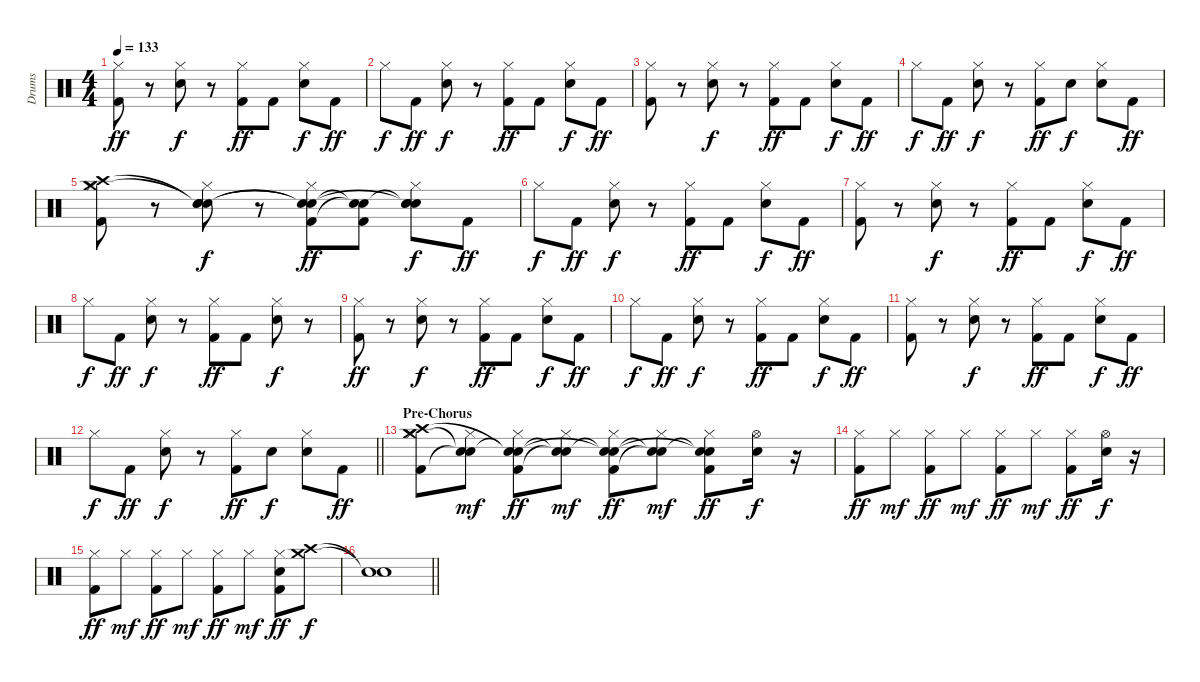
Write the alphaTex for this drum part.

\track ("Drums" "Drums") {instrument percussion}
\staff {score}
\articulation defaults
\ts (4 4)
\tempo 133
\clef neutral
\ks c
("Hi-Hat (closed)" "Kick (hit) 2").8{dy ff} r.8 ("Hi-Hat (closed)" "Snare (hit) 2").8{dy f} r.8 ("Hi-Hat (closed)" "Kick (hit) 2").8{dy ff} "Kick (hit) 2".8 ("Hi-Hat (closed)" "Snare (hit) 2").8{dy f} "Kick (hit) 2".8{dy ff} |
"Hi-Hat (closed)".8{dy f} "Kick (hit) 2".8{dy ff} ("Hi-Hat (closed)" "Snare (hit) 2").8{dy f} r.8 ("Hi-Hat (closed)" "Kick (hit) 2").8{dy ff} "Kick (hit) 2".8 ("Hi-Hat (closed)" "Snare (hit) 2").8{dy f} "Kick (hit) 2".8{dy ff} |
("Hi-Hat (closed)" "Kick (hit) 2").8 r.8 ("Hi-Hat (closed)" "Snare (hit) 2").8{dy f} r.8 ("Hi-Hat (closed)" "Kick (hit) 2").8{dy ff} "Kick (hit) 2".8 ("Hi-Hat (closed)" "Snare (hit) 2").8{dy f} "Kick (hit) 2".8{dy ff} |
"Hi-Hat (closed)".8{dy f} "Kick (hit) 2".8{dy ff} ("Hi-Hat (closed)" "Snare (hit) 2").8{dy f} r.8 ("Hi-Hat (closed)" "Kick (hit) 2").8{dy ff} "Snare (hit) 2".8{dy f} ("Hi-Hat (closed)" "Snare (hit) 2").8 "Kick (hit) 2".8{dy ff} |
("Hi-Hat (closed)" "Kick (hit) 2" "Crash medium (hit)" "Crash high (hit)").8 r.8 ("Hi-Hat (closed)" "Snare (hit) 2" "Snare (hit)"{t} "Snare (hit)"{t}).8{dy f} r.8 ("Hi-Hat (closed)" "Kick (hit) 2" "Snare (hit)"{t} "Snare (hit)"{t}).8{dy ff} ("Kick (hit) 2" "Snare (hit)"{t} "Snare (hit)"{t}).8 ("Hi-Hat (closed)" "Snare (hit) 2" "Snare (hit)"{t} "Snare (hit)"{t}).8{dy f} "Kick (hit) 2".8{dy ff} |
"Hi-Hat (closed)".8{dy f} "Kick (hit) 2".8{dy ff} ("Hi-Hat (closed)" "Snare (hit) 2").8{dy f} r.8 ("Hi-Hat (closed)" "Kick (hit) 2").8{dy ff} "Kick (hit) 2".8 ("Hi-Hat (closed)" "Snare (hit) 2").8{dy f} "Kick (hit) 2".8{dy ff} |
("Hi-Hat (closed)" "Kick (hit) 2").8 r.8 ("Hi-Hat (closed)" "Snare (hit) 2").8{dy f} r.8 ("Hi-Hat (closed)" "Kick (hit) 2").8{dy ff} "Kick (hit) 2".8 ("Hi-Hat (closed)" "Snare (hit) 2").8{dy f} "Kick (hit) 2".8{dy ff} |
"Hi-Hat (closed)".8{dy f} "Kick (hit) 2".8{dy ff} ("Hi-Hat (closed)" "Snare (hit) 2").8{dy f} r.8 ("Hi-Hat (closed)" "Kick (hit) 2").8{dy ff} "Kick (hit) 2".8 ("Hi-Hat (closed)" "Snare (hit) 2").8{dy f} r.8 |
("Hi-Hat (closed)" "Kick (hit) 2").8{dy ff} r.8 ("Hi-Hat (closed)" "Snare (hit) 2").8{dy f} r.8 ("Hi-Hat (closed)" "Kick (hit) 2").8{dy ff} "Kick (hit) 2".8 ("Hi-Hat (closed)" "Snare (hit) 2").8{dy f} "Kick (hit) 2".8{dy ff} |
"Hi-Hat (closed)".8{dy f} "Kick (hit) 2".8{dy ff} ("Hi-Hat (closed)" "Snare (hit) 2").8{dy f} r.8 ("Hi-Hat (closed)" "Kick (hit) 2").8{dy ff} "Kick (hit) 2".8 ("Hi-Hat (closed)" "Snare (hit) 2").8{dy f} "Kick (hit) 2".8{dy ff} |
("Hi-Hat (closed)" "Kick (hit) 2").8 r.8 ("Hi-Hat (closed)" "Snare (hit) 2").8{dy f} r.8 ("Hi-Hat (closed)" "Kick (hit) 2").8{dy ff} "Kick (hit) 2".8 ("Hi-Hat (closed)" "Snare (hit) 2").8{dy f} "Kick (hit) 2".8{dy ff} |
\barLineRight lightlight "Hi-Hat (closed)".8{dy f} "Kick (hit) 2".8{dy ff}
("Hi-Hat (closed)" "Snare (hit) 2").8{dy f} r.8 ("Hi-Hat (closed)" "Kick (hit) 2").8{dy ff} "Snare (hit) 2".8{dy f} ("Hi-Hat (closed)" "Snare (hit) 2").8 "Kick (hit) 2".8{dy ff} |
\section ("" "Pre-Chorus")
("Hi-Hat (closed)" "Kick (hit) 2" "Crash medium (hit)" "Crash high (hit)").8 ("Hi-Hat (closed)" "Snare (hit)"{t} "Snare (hit)"{t}).8{dy mf} ("Hi-Hat (closed)" "Kick (hit) 2" "Snare (hit)"{t} "Snare (hit)"{t}).8{dy ff} ("Hi-Hat (closed)" "Snare (hit)"{t} "Snare (hit)"{t}).8{dy mf} ("Hi-Hat (closed)" "Kick (hit) 2" "Snare (hit)"{t} "Snare (hit)"{t}).8{dy ff} ("Hi-Hat (closed)" "Snare (hit)"{t} "Snare (hit)"{t}).8{dy mf} ("Hi-Hat (closed)" "Kick (hit) 2" "Snare (hit)"{t} "Snare (hit)"{t}).8{dy ff} ("Hi-Hat (open)" "Snare (hit) 2").16{dy f} r.16 |
("Hi-Hat (closed)" "Kick (hit) 2").8{dy ff} "Hi-Hat (closed)".8{dy mf} ("Hi-Hat (closed)" "Kick (hit) 2").8{dy ff} "Hi-Hat (closed)".8{dy mf} ("Hi-Hat (closed)" "Kick (hit) 2").8{dy ff} "Hi-Hat (closed)".8{dy mf} ("Hi-Hat (closed)" "Kick (hit) 2").8{dy ff} ("Hi-Hat (open)" "Snare (hit) 2").16{dy f} r.16 |
("Hi-Hat (closed)" "Kick (hit) 2").8{dy ff} "Hi-Hat (closed)".8{dy mf} ("Hi-Hat (closed)" "Kick (hit) 2").8{dy ff} "Hi-Hat (closed)".8{dy mf} ("Hi-Hat (closed)" "Kick (hit) 2").8{dy ff} "Hi-Hat (closed)".8{dy mf} ("Hi-Hat (closed)" "Snare (hit) 2" "Kick (hit) 2").8{dy ff} ("Crash medium (hit)" "Crash high (hit)").8{dy f} |
\barLineRight lightlight
("Snare (hit)"{t} "Snare (hit)"{t}).1
